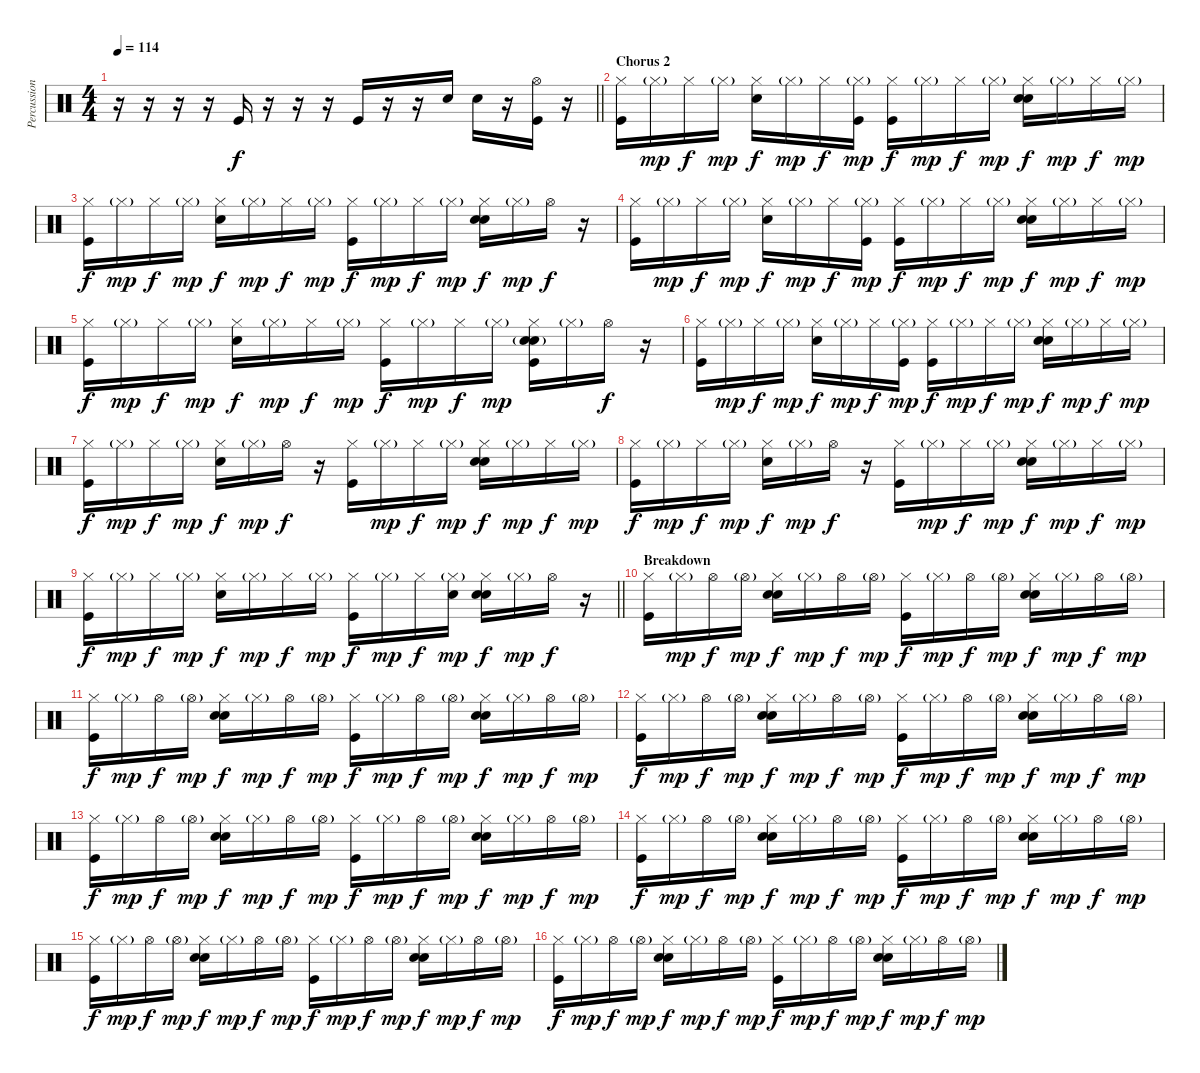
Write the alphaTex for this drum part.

\track ("Percussion" "Percussion") {instrument percussion bank 177}
\staff {score}
\articulation defaults
\ts (4 4)
\tempo 114
\clef neutral
\barLineRight lightlight
\ks c
r.16{dy f} r.16 r.16 r.16 "Kick (hit)".16 r.16 r.16 r.16 "Kick (hit)".16 r.16 r.16 "Snare (hit) 2".16 "Snare (hit) 2".16 r.16 ("Hi-Hat (open)" "Kick (hit)").16 r.16 |
\section ("" "Chorus 2")
("Hi-Hat (closed)" "Kick (hit)").16 "Hi-Hat (closed)"{g}.16{dy mp} "Hi-Hat (closed)".16{dy f} "Hi-Hat (closed)"{g}.16{dy mp} ("Hi-Hat (closed)" "Snare (hit) 2").16{dy f} "Hi-Hat (closed)"{g}.16{dy mp} "Hi-Hat (closed)".16{dy f} ("Hi-Hat (closed)"{g} "Kick (hit)").16{dy mp} ("Hi-Hat (closed)" "Kick (hit)").16{dy f} "Hi-Hat (closed)"{g}.16{dy mp} "Hi-Hat (closed)".16{dy f} "Hi-Hat (closed)"{g}.16{dy mp} ("Hi-Hat (closed)" "Hand Clap (hit)" "Snare (hit) 2").16{dy f} "Hi-Hat (closed)"{g}.16{dy mp} "Hi-Hat (closed)".16{dy f} "Hi-Hat (closed)"{g}.16{dy mp} |
("Hi-Hat (closed)" "Kick (hit)").16{dy f} "Hi-Hat (closed)"{g}.16{dy mp} "Hi-Hat (closed)".16{dy f} "Hi-Hat (closed)"{g}.16{dy mp} ("Hi-Hat (closed)" "Snare (hit) 2").16{dy f} "Hi-Hat (closed)"{g}.16{dy mp} "Hi-Hat (closed)".16{dy f} "Hi-Hat (closed)"{g}.16{dy mp} ("Hi-Hat (closed)" "Kick (hit)").16{dy f} "Hi-Hat (closed)"{g}.16{dy mp} "Hi-Hat (closed)".16{dy f} "Hi-Hat (closed)"{g}.16{dy mp} ("Hi-Hat (closed)" "Hand Clap (hit)" "Snare (hit) 2").16{dy f} "Hi-Hat (closed)"{g}.16{dy mp} "Hi-Hat (open)".16{dy f} r.16 |
("Hi-Hat (closed)" "Kick (hit)").16 "Hi-Hat (closed)"{g}.16{dy mp} "Hi-Hat (closed)".16{dy f} "Hi-Hat (closed)"{g}.16{dy mp} ("Hi-Hat (closed)" "Snare (hit) 2").16{dy f} "Hi-Hat (closed)"{g}.16{dy mp} "Hi-Hat (closed)".16{dy f} ("Hi-Hat (closed)"{g} "Kick (hit)").16{dy mp} ("Hi-Hat (closed)" "Kick (hit)").16{dy f} "Hi-Hat (closed)"{g}.16{dy mp} "Hi-Hat (closed)".16{dy f} "Hi-Hat (closed)"{g}.16{dy mp} ("Hi-Hat (closed)" "Hand Clap (hit)" "Snare (hit) 2").16{dy f} "Hi-Hat (closed)"{g}.16{dy mp} "Hi-Hat (closed)".16{dy f} "Hi-Hat (closed)"{g}.16{dy mp} |
("Hi-Hat (closed)" "Kick (hit)").16{dy f} "Hi-Hat (closed)"{g}.16{dy mp} "Hi-Hat (closed)".16{dy f} "Hi-Hat (closed)"{g}.16{dy mp} ("Hi-Hat (closed)" "Snare (hit) 2").16{dy f} "Hi-Hat (closed)"{g}.16{dy mp} "Hi-Hat (closed)".16{dy f} "Hi-Hat (closed)"{g}.16{dy mp} ("Hi-Hat (closed)" "Kick (hit)").16{dy f} "Hi-Hat (closed)"{g}.16{dy mp} "Hi-Hat (closed)".16{dy f} "Hi-Hat (closed)"{g}.16{dy mp} ("Hi-Hat (closed)" "Hand Clap (hit)" "Snare (hit) 2"{g} "Kick (hit)").16 "Hi-Hat (closed)"{g}.16 "Hi-Hat (open)".16{dy f} r.16 |
("Hi-Hat (closed)" "Kick (hit)").16 "Hi-Hat (closed)"{g}.16{dy mp} "Hi-Hat (closed)".16{dy f} "Hi-Hat (closed)"{g}.16{dy mp} ("Hi-Hat (closed)" "Snare (hit) 2").16{dy f} "Hi-Hat (closed)"{g}.16{dy mp} "Hi-Hat (closed)".16{dy f} ("Hi-Hat (closed)"{g} "Kick (hit)").16{dy mp} ("Hi-Hat (closed)" "Kick (hit)").16{dy f} "Hi-Hat (closed)"{g}.16{dy mp} "Hi-Hat (closed)".16{dy f} "Hi-Hat (closed)"{g}.16{dy mp} ("Hi-Hat (closed)" "Hand Clap (hit)" "Snare (hit) 2").16{dy f} "Hi-Hat (closed)"{g}.16{dy mp} "Hi-Hat (closed)".16{dy f} "Hi-Hat (closed)"{g}.16{dy mp} |
("Hi-Hat (closed)" "Kick (hit)").16{dy f} "Hi-Hat (closed)"{g}.16{dy mp} "Hi-Hat (closed)".16{dy f} "Hi-Hat (closed)"{g}.16{dy mp} ("Hi-Hat (closed)" "Snare (hit) 2").16{dy f} "Hi-Hat (closed)"{g}.16{dy mp} "Hi-Hat (open)".16{dy f} r.16 ("Hi-Hat (closed)" "Kick (hit)").16 "Hi-Hat (closed)"{g}.16{dy mp} "Hi-Hat (closed)".16{dy f} "Hi-Hat (closed)"{g}.16{dy mp} ("Hi-Hat (closed)" "Hand Clap (hit)" "Snare (hit) 2").16{dy f} "Hi-Hat (closed)"{g}.16{dy mp} "Hi-Hat (closed)".16{dy f} "Hi-Hat (closed)"{g}.16{dy mp} |
("Hi-Hat (closed)" "Kick (hit)").16{dy f} "Hi-Hat (closed)"{g}.16{dy mp} "Hi-Hat (closed)".16{dy f} "Hi-Hat (closed)"{g}.16{dy mp} ("Hi-Hat (closed)" "Snare (hit) 2").16{dy f} "Hi-Hat (closed)"{g}.16{dy mp} "Hi-Hat (open)".16{dy f} r.16 ("Hi-Hat (closed)" "Kick (hit)").16 "Hi-Hat (closed)"{g}.16{dy mp} "Hi-Hat (closed)".16{dy f} "Hi-Hat (closed)"{g}.16{dy mp} ("Hi-Hat (closed)" "Hand Clap (hit)" "Snare (hit) 2").16{dy f} "Hi-Hat (closed)"{g}.16{dy mp} "Hi-Hat (closed)".16{dy f} "Hi-Hat (closed)"{g}.16{dy mp} |
\barLineRight lightlight
("Hi-Hat (closed)" "Kick (hit)").16{dy f} "Hi-Hat (closed)"{g}.16{dy mp} "Hi-Hat (closed)".16{dy f} "Hi-Hat (closed)"{g}.16{dy mp} ("Hi-Hat (closed)" "Snare (hit) 2").16{dy f} "Hi-Hat (closed)"{g}.16{dy mp} "Hi-Hat (closed)".16{dy f} "Hi-Hat (closed)"{g}.16{dy mp} ("Hi-Hat (closed)" "Kick (hit)").16{dy f} "Hi-Hat (closed)"{g}.16{dy mp} "Hi-Hat (closed)".16{dy f} ("Hi-Hat (closed)"{g} "Snare (hit) 2").16{dy mp} ("Hi-Hat (closed)" "Hand Clap (hit)" "Snare (hit) 2").16{dy f} "Hi-Hat (closed)"{g}.16{dy mp} "Hi-Hat (open)".16{dy f} r.16 |
\section ("" "Breakdown")
("Hi-Hat (closed)" "Kick (hit)").16 "Hi-Hat (closed)"{g}.16{dy mp} "Hi-Hat (open)".16{dy f} "Hi-Hat (open)"{g}.16{dy mp} ("Hi-Hat (closed)" "Hand Clap (hit)" "Snare (hit) 2").16{dy f} "Hi-Hat (closed)"{g}.16{dy mp} "Hi-Hat (open)".16{dy f} "Hi-Hat (open)"{g}.16{dy mp} ("Hi-Hat (closed)" "Kick (hit)").16{dy f} "Hi-Hat (closed)"{g}.16{dy mp} "Hi-Hat (open)".16{dy f} "Hi-Hat (open)"{g}.16{dy mp} ("Hi-Hat (closed)" "Hand Clap (hit)" "Snare (hit) 2").16{dy f} "Hi-Hat (closed)"{g}.16{dy mp} "Hi-Hat (open)".16{dy f} "Hi-Hat (open)"{g}.16{dy mp} |
("Hi-Hat (closed)" "Kick (hit)").16{dy f} "Hi-Hat (closed)"{g}.16{dy mp} "Hi-Hat (open)".16{dy f} "Hi-Hat (open)"{g}.16{dy mp} ("Hi-Hat (closed)" "Hand Clap (hit)" "Snare (hit) 2").16{dy f} "Hi-Hat (closed)"{g}.16{dy mp} "Hi-Hat (open)".16{dy f} "Hi-Hat (open)"{g}.16{dy mp} ("Hi-Hat (closed)" "Kick (hit)").16{dy f} "Hi-Hat (closed)"{g}.16{dy mp} "Hi-Hat (open)".16{dy f} "Hi-Hat (open)"{g}.16{dy mp} ("Hi-Hat (closed)" "Hand Clap (hit)" "Snare (hit) 2").16{dy f} "Hi-Hat (closed)"{g}.16{dy mp} "Hi-Hat (open)".16{dy f} "Hi-Hat (open)"{g}.16{dy mp} |
("Hi-Hat (closed)" "Kick (hit)").16{dy f} "Hi-Hat (closed)"{g}.16{dy mp} "Hi-Hat (open)".16{dy f} "Hi-Hat (open)"{g}.16{dy mp} ("Hi-Hat (closed)" "Hand Clap (hit)" "Snare (hit) 2").16{dy f} "Hi-Hat (closed)"{g}.16{dy mp} "Hi-Hat (open)".16{dy f} "Hi-Hat (open)"{g}.16{dy mp} ("Hi-Hat (closed)" "Kick (hit)").16{dy f} "Hi-Hat (closed)"{g}.16{dy mp} "Hi-Hat (open)".16{dy f} "Hi-Hat (open)"{g}.16{dy mp} ("Hi-Hat (closed)" "Hand Clap (hit)" "Snare (hit) 2").16{dy f} "Hi-Hat (closed)"{g}.16{dy mp} "Hi-Hat (open)".16{dy f} "Hi-Hat (open)"{g}.16{dy mp} |
("Hi-Hat (closed)" "Kick (hit)").16{dy f} "Hi-Hat (closed)"{g}.16{dy mp} "Hi-Hat (open)".16{dy f} "Hi-Hat (open)"{g}.16{dy mp} ("Hi-Hat (closed)" "Hand Clap (hit)" "Snare (hit) 2").16{dy f} "Hi-Hat (closed)"{g}.16{dy mp} "Hi-Hat (open)".16{dy f} "Hi-Hat (open)"{g}.16{dy mp} ("Hi-Hat (closed)" "Kick (hit)").16{dy f} "Hi-Hat (closed)"{g}.16{dy mp} "Hi-Hat (open)".16{dy f} "Hi-Hat (open)"{g}.16{dy mp} ("Hi-Hat (closed)" "Hand Clap (hit)" "Snare (hit) 2").16{dy f} "Hi-Hat (closed)"{g}.16{dy mp} "Hi-Hat (open)".16{dy f} "Hi-Hat (open)"{g}.16{dy mp} |
("Hi-Hat (closed)" "Kick (hit)").16{dy f} "Hi-Hat (closed)"{g}.16{dy mp} "Hi-Hat (open)".16{dy f} "Hi-Hat (open)"{g}.16{dy mp} ("Hi-Hat (closed)" "Hand Clap (hit)" "Snare (hit) 2").16{dy f} "Hi-Hat (closed)"{g}.16{dy mp} "Hi-Hat (open)".16{dy f} "Hi-Hat (open)"{g}.16{dy mp} ("Hi-Hat (closed)" "Kick (hit)").16{dy f} "Hi-Hat (closed)"{g}.16{dy mp} "Hi-Hat (open)".16{dy f} "Hi-Hat (open)"{g}.16{dy mp} ("Hi-Hat (closed)" "Hand Clap (hit)" "Snare (hit) 2").16{dy f} "Hi-Hat (closed)"{g}.16{dy mp} "Hi-Hat (open)".16{dy f} "Hi-Hat (open)"{g}.16{dy mp} |
("Hi-Hat (closed)" "Kick (hit)").16{dy f} "Hi-Hat (closed)"{g}.16{dy mp} "Hi-Hat (open)".16{dy f} "Hi-Hat (open)"{g}.16{dy mp} ("Hi-Hat (closed)" "Hand Clap (hit)" "Snare (hit) 2").16{dy f} "Hi-Hat (closed)"{g}.16{dy mp} "Hi-Hat (open)".16{dy f} "Hi-Hat (open)"{g}.16{dy mp} ("Hi-Hat (closed)" "Kick (hit)").16{dy f} "Hi-Hat (closed)"{g}.16{dy mp} "Hi-Hat (open)".16{dy f} "Hi-Hat (open)"{g}.16{dy mp} ("Hi-Hat (closed)" "Hand Clap (hit)" "Snare (hit) 2").16{dy f} "Hi-Hat (closed)"{g}.16{dy mp} "Hi-Hat (open)".16{dy f} "Hi-Hat (open)"{g}.16{dy mp} |
("Hi-Hat (closed)" "Kick (hit)").16{dy f} "Hi-Hat (closed)"{g}.16{dy mp} "Hi-Hat (open)".16{dy f} "Hi-Hat (open)"{g}.16{dy mp} ("Hi-Hat (closed)" "Hand Clap (hit)" "Snare (hit) 2").16{dy f} "Hi-Hat (closed)"{g}.16{dy mp} "Hi-Hat (open)".16{dy f} "Hi-Hat (open)"{g}.16{dy mp} ("Hi-Hat (closed)" "Kick (hit)").16{dy f} "Hi-Hat (closed)"{g}.16{dy mp} "Hi-Hat (open)".16{dy f} "Hi-Hat (open)"{g}.16{dy mp} ("Hi-Hat (closed)" "Hand Clap (hit)" "Snare (hit) 2").16{dy f} "Hi-Hat (closed)"{g}.16{dy mp} "Hi-Hat (open)".16{dy f} "Hi-Hat (open)"{g}.16{dy mp}
